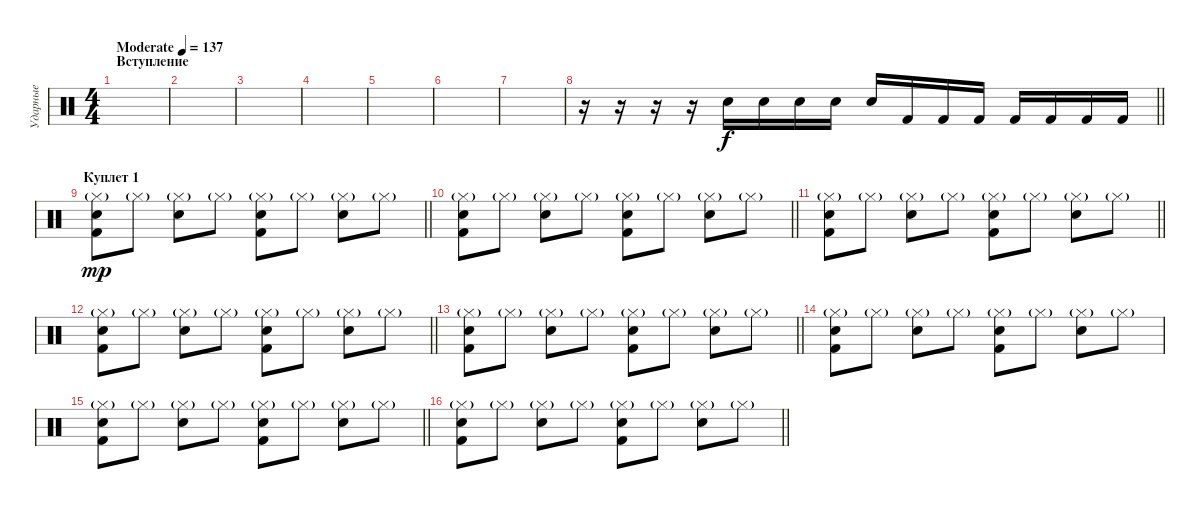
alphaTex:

\track ("Ударные" "Ударные") {instrument percussion}
\staff {score}
\articulation defaults
\ts (4 4)
\section ("" "Вступление")
\tempo (137 "Moderate")
\clef neutral
\ks c
|
|
|
|
|
|
|
\barLineRight lightlight
r.16 r.16 r.16 r.16 "Snare (hit) 2".16 "Snare (hit) 2".16 "Snare (hit) 2".16 "Snare (hit) 2".16 "Snare (hit) 2".16 "Kick (hit) 2".16 "Kick (hit) 2".16 "Kick (hit) 2".16 "Kick (hit) 2".16 "Kick (hit) 2".16 "Kick (hit) 2".16 "Kick (hit) 2".16 |
\section ("" "Куплет 1")
\barLineRight lightlight
("Kick (hit) 2" "Electric Snare (hit)" "Hi-Hat (closed)"{g}).8{dy mp} "Hi-Hat (closed)"{g}.8 ("Snare (hit) 2" "Hi-Hat (closed)"{g}).8 "Hi-Hat (closed)"{g}.8 ("Kick (hit) 2" "Electric Snare (hit)" "Hi-Hat (closed)"{g}).8 "Hi-Hat (closed)"{g}.8 ("Snare (hit) 2" "Hi-Hat (closed)"{g}).8 "Hi-Hat (closed)"{g}.8 |
\barLineRight lightlight
("Kick (hit) 2" "Electric Snare (hit)" "Hi-Hat (closed)"{g}).8 "Hi-Hat (closed)"{g}.8 ("Snare (hit) 2" "Hi-Hat (closed)"{g}).8 "Hi-Hat (closed)"{g}.8 ("Kick (hit) 2" "Electric Snare (hit)" "Hi-Hat (closed)"{g}).8 "Hi-Hat (closed)"{g}.8 ("Snare (hit) 2" "Hi-Hat (closed)"{g}).8 "Hi-Hat (closed)"{g}.8 |
\barLineRight lightlight
("Kick (hit) 2" "Electric Snare (hit)" "Hi-Hat (closed)"{g}).8 "Hi-Hat (closed)"{g}.8 ("Snare (hit) 2" "Hi-Hat (closed)"{g}).8 "Hi-Hat (closed)"{g}.8 ("Kick (hit) 2" "Electric Snare (hit)" "Hi-Hat (closed)"{g}).8 "Hi-Hat (closed)"{g}.8 ("Snare (hit) 2" "Hi-Hat (closed)"{g}).8 "Hi-Hat (closed)"{g}.8 |
\barLineRight lightlight
("Kick (hit) 2" "Electric Snare (hit)" "Hi-Hat (closed)"{g}).8 "Hi-Hat (closed)"{g}.8 ("Snare (hit) 2" "Hi-Hat (closed)"{g}).8 "Hi-Hat (closed)"{g}.8 ("Kick (hit) 2" "Electric Snare (hit)" "Hi-Hat (closed)"{g}).8 "Hi-Hat (closed)"{g}.8 ("Snare (hit) 2" "Hi-Hat (closed)"{g}).8 "Hi-Hat (closed)"{g}.8 |
\barLineRight lightlight
("Kick (hit) 2" "Electric Snare (hit)" "Hi-Hat (closed)"{g}).8 "Hi-Hat (closed)"{g}.8 ("Snare (hit) 2" "Hi-Hat (closed)"{g}).8 "Hi-Hat (closed)"{g}.8 ("Kick (hit) 2" "Electric Snare (hit)" "Hi-Hat (closed)"{g}).8 "Hi-Hat (closed)"{g}.8 ("Snare (hit) 2" "Hi-Hat (closed)"{g}).8 "Hi-Hat (closed)"{g}.8 |
("Kick (hit) 2" "Electric Snare (hit)" "Hi-Hat (closed)"{g}).8 "Hi-Hat (closed)"{g}.8 ("Snare (hit) 2" "Hi-Hat (closed)"{g}).8 "Hi-Hat (closed)"{g}.8 ("Kick (hit) 2" "Electric Snare (hit)" "Hi-Hat (closed)"{g}).8 "Hi-Hat (closed)"{g}.8 ("Snare (hit) 2" "Hi-Hat (closed)"{g}).8 "Hi-Hat (closed)"{g}.8 |
\barLineRight lightlight
("Kick (hit) 2" "Electric Snare (hit)" "Hi-Hat (closed)"{g}).8 "Hi-Hat (closed)"{g}.8 ("Snare (hit) 2" "Hi-Hat (closed)"{g}).8 "Hi-Hat (closed)"{g}.8 ("Kick (hit) 2" "Electric Snare (hit)" "Hi-Hat (closed)"{g}).8 "Hi-Hat (closed)"{g}.8 ("Snare (hit) 2" "Hi-Hat (closed)"{g}).8 "Hi-Hat (closed)"{g}.8 |
\barLineRight lightlight
("Kick (hit) 2" "Electric Snare (hit)" "Hi-Hat (closed)"{g}).8 "Hi-Hat (closed)"{g}.8 ("Snare (hit) 2" "Hi-Hat (closed)"{g}).8 "Hi-Hat (closed)"{g}.8 ("Kick (hit) 2" "Electric Snare (hit)" "Hi-Hat (closed)"{g}).8 "Hi-Hat (closed)"{g}.8 ("Snare (hit) 2" "Hi-Hat (closed)"{g}).8 "Hi-Hat (closed)"{g}.8
